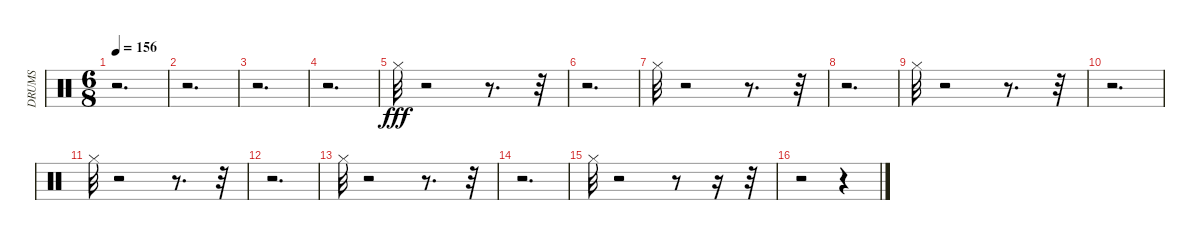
\track ("DRUMS" "DRUMS") {instrument percussion}
\staff {score}
\articulation defaults
\ts (6 8)
\tempo 156
\clef neutral
\ks c
r.2{d dy fff} |
r.2{d} |
r.2{d} |
r.2{d} |
"Hi-Hat (closed)".32 r.2 r.8{d} r.32 |
r.2{d} |
"Hi-Hat (closed)".32 r.2 r.8{d} r.32 |
r.2{d} |
"Hi-Hat (closed)".32 r.2 r.8{d} r.32 |
r.2{d} |
"Hi-Hat (closed)".32 r.2 r.8{d} r.32 |
r.2{d} |
"Hi-Hat (closed)".32 r.2 r.8{d} r.32 |
r.2{d} |
"Hi-Hat (closed)".32 r.2 r.8 r.16 r.32 |
r.2 r.4
